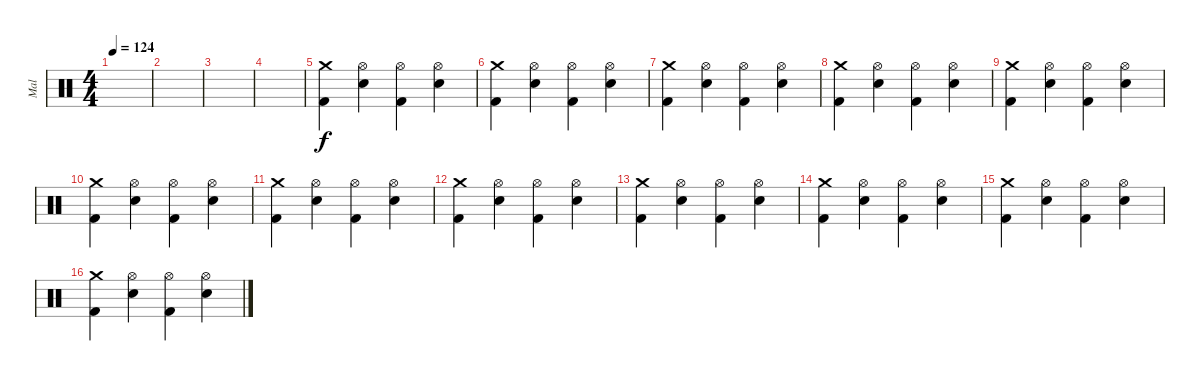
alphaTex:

\track ("Mal" "Mal") {instrument percussion}
\staff {score}
\articulation defaults
\ts (4 4)
\tempo 124
\clef neutral
\ks c
|
|
|
|
("Crash medium (hit)" "Kick (hit) 2").4 ("Hi-Hat (open)" "Electric Snare (hit)").4 ("Hi-Hat (open)" "Kick (hit) 2").4 ("Hi-Hat (open)" "Electric Snare (hit)").4 |
("Crash medium (hit)" "Kick (hit) 2").4 ("Hi-Hat (open)" "Electric Snare (hit)").4 ("Hi-Hat (open)" "Kick (hit) 2").4 ("Hi-Hat (open)" "Electric Snare (hit)").4 |
("Crash medium (hit)" "Kick (hit) 2").4 ("Hi-Hat (open)" "Electric Snare (hit)").4 ("Hi-Hat (open)" "Kick (hit) 2").4 ("Hi-Hat (open)" "Electric Snare (hit)").4 |
("Crash medium (hit)" "Kick (hit) 2").4 ("Hi-Hat (open)" "Electric Snare (hit)").4 ("Hi-Hat (open)" "Kick (hit) 2").4 ("Hi-Hat (open)" "Electric Snare (hit)").4 |
("Crash medium (hit)" "Kick (hit) 2").4 ("Hi-Hat (open)" "Electric Snare (hit)").4 ("Hi-Hat (open)" "Kick (hit) 2").4 ("Hi-Hat (open)" "Electric Snare (hit)").4 |
("Crash medium (hit)" "Kick (hit) 2").4 ("Hi-Hat (open)" "Electric Snare (hit)").4 ("Hi-Hat (open)" "Kick (hit) 2").4 ("Hi-Hat (open)" "Electric Snare (hit)").4 |
("Crash medium (hit)" "Kick (hit) 2").4 ("Hi-Hat (open)" "Electric Snare (hit)").4 ("Hi-Hat (open)" "Kick (hit) 2").4 ("Hi-Hat (open)" "Electric Snare (hit)").4 |
("Crash medium (hit)" "Kick (hit) 2").4 ("Hi-Hat (open)" "Electric Snare (hit)").4 ("Hi-Hat (open)" "Kick (hit) 2").4 ("Hi-Hat (open)" "Electric Snare (hit)").4 |
("Crash medium (hit)" "Kick (hit) 2").4 ("Hi-Hat (open)" "Electric Snare (hit)").4 ("Hi-Hat (open)" "Kick (hit) 2").4 ("Hi-Hat (open)" "Electric Snare (hit)").4 |
("Crash medium (hit)" "Kick (hit) 2").4 ("Hi-Hat (open)" "Electric Snare (hit)").4 ("Hi-Hat (open)" "Kick (hit) 2").4 ("Hi-Hat (open)" "Electric Snare (hit)").4 |
("Crash medium (hit)" "Kick (hit) 2").4 ("Hi-Hat (open)" "Electric Snare (hit)").4 ("Hi-Hat (open)" "Kick (hit) 2").4 ("Hi-Hat (open)" "Electric Snare (hit)").4 |
("Crash medium (hit)" "Kick (hit) 2").4 ("Hi-Hat (open)" "Electric Snare (hit)").4 ("Hi-Hat (open)" "Kick (hit) 2").4 ("Hi-Hat (open)" "Electric Snare (hit)").4
